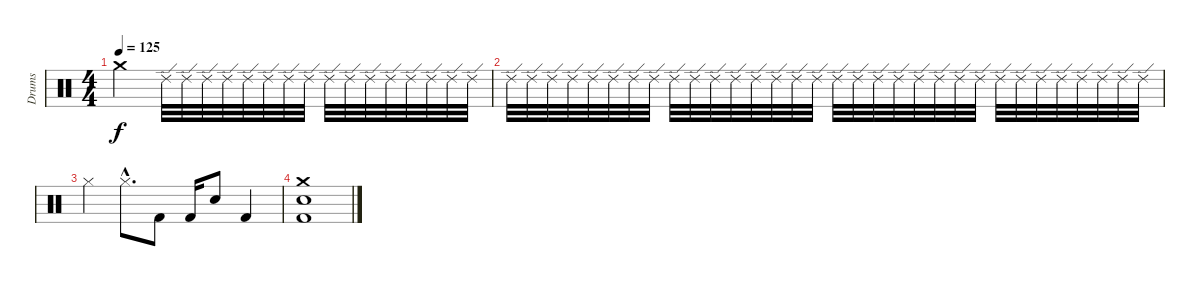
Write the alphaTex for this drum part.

\track ("Drums" "Drums") {instrument percussion}
\staff {score}
\articulation defaults
\ts (4 4)
\tempo 125
\clef neutral
\ks c "Crash medium (hit)".2{dy f} "Ride (edge) 2".32 "Ride (edge) 2".32 "Ride (edge) 2".32 "Ride (edge) 2".32 "Ride (edge) 2".32 "Ride (edge) 2".32 "Ride (edge) 2".32 "Ride (edge) 2".32 "Ride (edge) 2".32 "Ride (edge) 2".32 "Ride (edge) 2".32 "Ride (edge) 2".32 "Ride (edge) 2".32 "Ride (edge) 2".32 "Ride (edge) 2".32 "Ride (edge) 2".32
|
"Ride (edge) 2".32 "Ride (edge) 2".32 "Ride (edge) 2".32 "Ride (edge) 2".32 "Ride (edge) 2".32 "Ride (edge) 2".32 "Ride (edge) 2".32 "Ride (edge) 2".32 "Ride (edge) 2".32 "Ride (edge) 2".32 "Ride (edge) 2".32 "Ride (edge) 2".32 "Ride (edge) 2".32 "Ride (edge) 2".32 "Ride (edge) 2".32 "Ride (edge) 2".32 "Ride (edge) 2".32 "Ride (edge) 2".32 "Ride (edge) 2".32 "Ride (edge) 2".32 "Ride (edge) 2".32 "Ride (edge) 2".32 "Ride (edge) 2".32 "Ride (edge) 2".32 "Ride (edge) 2".32 "Ride (edge) 2".32 "Ride (edge) 2".32 "Ride (edge) 2".32 "Ride (edge) 2".32 "Ride (edge) 2".32 "Ride (edge) 2".32 "Ride (edge) 2".32 |
"Hi-Hat (closed)".4 "Hi-Hat (closed)"{hac}.8{d} "Kick (hit) 2".8 "Kick (hit) 2".16 "Electric Snare (hit)".8 "Kick (hit) 2".4 |
("Crash medium (hit)" "Electric Snare (hit)" "Kick (hit) 2").1
